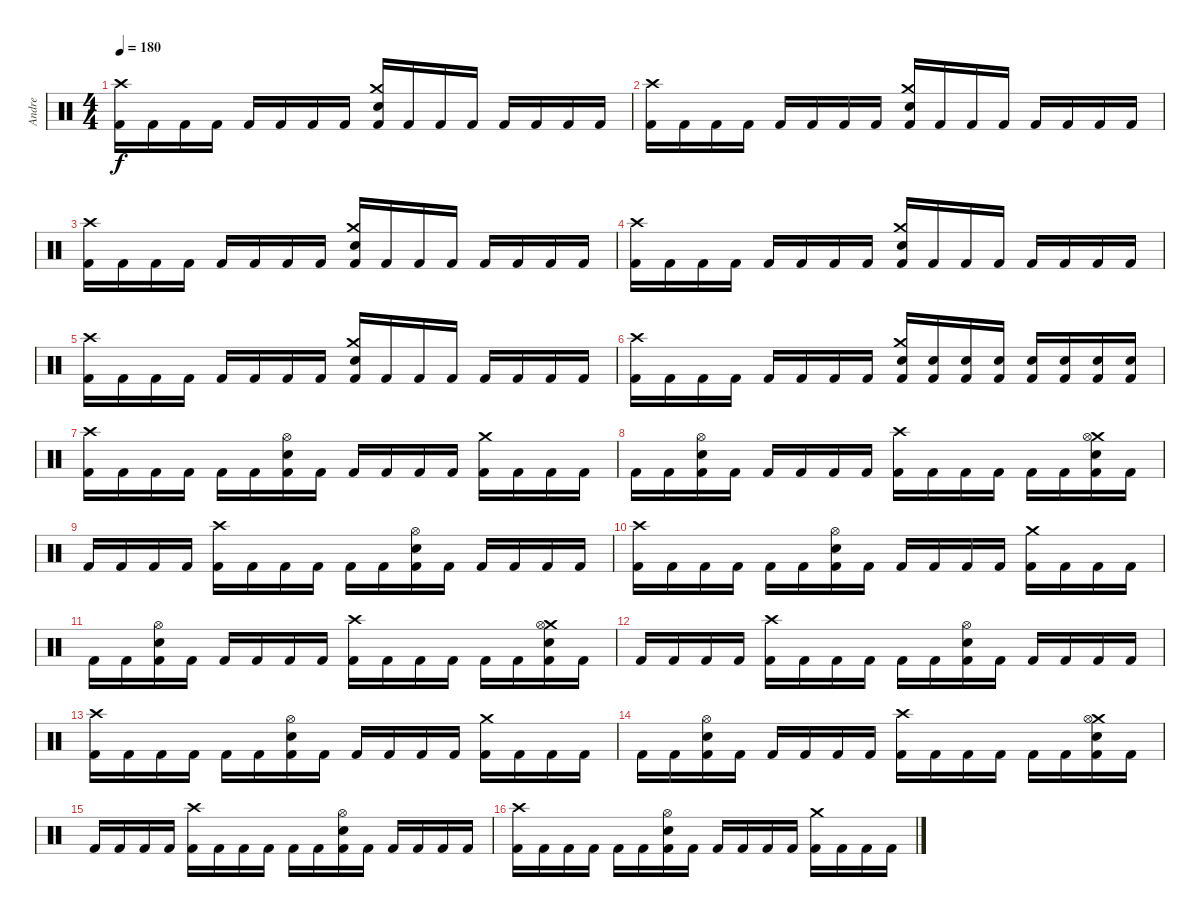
\track ("Andre" "Andre") {instrument percussion}
\staff {score}
\articulation defaults
\ts (4 4)
\tempo 180
\clef neutral
\ks c
("Crash high (hit)" "Kick (hit) 2").16{dy f} "Kick (hit) 2".16 "Kick (hit) 2".16 "Kick (hit) 2".16 "Kick (hit) 2".16 "Kick (hit) 2".16 "Kick (hit) 2".16 "Kick (hit) 2".16 ("Crash medium (hit)" "Snare (hit) 2" "Kick (hit) 2").16 "Kick (hit) 2".16 "Kick (hit) 2".16 "Kick (hit) 2".16 "Kick (hit) 2".16 "Kick (hit) 2".16 "Kick (hit) 2".16 "Kick (hit) 2".16 |
("Crash high (hit)" "Kick (hit) 2").16 "Kick (hit) 2".16 "Kick (hit) 2".16 "Kick (hit) 2".16 "Kick (hit) 2".16 "Kick (hit) 2".16 "Kick (hit) 2".16 "Kick (hit) 2".16 ("Crash medium (hit)" "Snare (hit) 2" "Kick (hit) 2").16 "Kick (hit) 2".16 "Kick (hit) 2".16 "Kick (hit) 2".16 "Kick (hit) 2".16 "Kick (hit) 2".16 "Kick (hit) 2".16 "Kick (hit) 2".16 |
("Crash high (hit)" "Kick (hit) 2").16 "Kick (hit) 2".16 "Kick (hit) 2".16 "Kick (hit) 2".16 "Kick (hit) 2".16 "Kick (hit) 2".16 "Kick (hit) 2".16 "Kick (hit) 2".16 ("Crash medium (hit)" "Snare (hit) 2" "Kick (hit) 2").16 "Kick (hit) 2".16 "Kick (hit) 2".16 "Kick (hit) 2".16 "Kick (hit) 2".16 "Kick (hit) 2".16 "Kick (hit) 2".16 "Kick (hit) 2".16 |
("Crash high (hit)" "Kick (hit) 2").16 "Kick (hit) 2".16 "Kick (hit) 2".16 "Kick (hit) 2".16 "Kick (hit) 2".16 "Kick (hit) 2".16 "Kick (hit) 2".16 "Kick (hit) 2".16 ("Crash medium (hit)" "Snare (hit) 2" "Kick (hit) 2").16 "Kick (hit) 2".16 "Kick (hit) 2".16 "Kick (hit) 2".16 "Kick (hit) 2".16 "Kick (hit) 2".16 "Kick (hit) 2".16 "Kick (hit) 2".16 |
("Crash high (hit)" "Kick (hit) 2").16 "Kick (hit) 2".16 "Kick (hit) 2".16 "Kick (hit) 2".16 "Kick (hit) 2".16 "Kick (hit) 2".16 "Kick (hit) 2".16 "Kick (hit) 2".16 ("Crash medium (hit)" "Snare (hit) 2" "Kick (hit) 2").16 "Kick (hit) 2".16 "Kick (hit) 2".16 "Kick (hit) 2".16 "Kick (hit) 2".16 "Kick (hit) 2".16 "Kick (hit) 2".16 "Kick (hit) 2".16 |
("Crash high (hit)" "Kick (hit) 2").16 "Kick (hit) 2".16 "Kick (hit) 2".16 "Kick (hit) 2".16 "Kick (hit) 2".16 "Kick (hit) 2".16 "Kick (hit) 2".16 "Kick (hit) 2".16 ("Crash medium (hit)" "Snare (hit) 2" "Kick (hit) 2").16 ("Snare (hit) 2" "Kick (hit) 2").16 ("Snare (hit) 2" "Kick (hit) 2").16 ("Snare (hit) 2" "Kick (hit) 2").16 ("Snare (hit) 2" "Kick (hit) 2").16 ("Snare (hit) 2" "Kick (hit) 2").16 ("Snare (hit) 2" "Kick (hit) 2").16 ("Snare (hit) 2" "Kick (hit) 2").16 |
("Crash high (hit)" "Kick (hit) 2").16 "Kick (hit) 2".16 "Kick (hit) 2".16 "Kick (hit) 2".16 "Kick (hit) 2".16 "Kick (hit) 2".16 ("Hi-Hat (open)" "Snare (hit) 2" "Kick (hit) 2").16 "Kick (hit) 2".16 "Kick (hit) 2".16 "Kick (hit) 2".16 "Kick (hit) 2".16 "Kick (hit) 2".16 ("Crash medium (hit)" "Kick (hit) 2").16 "Kick (hit) 2".16 "Kick (hit) 2".16 "Kick (hit) 2".16 |
"Kick (hit) 2".16 "Kick (hit) 2".16 ("Hi-Hat (open)" "Snare (hit) 2" "Kick (hit) 2").16 "Kick (hit) 2".16 "Kick (hit) 2".16 "Kick (hit) 2".16 "Kick (hit) 2".16 "Kick (hit) 2".16 ("Crash high (hit)" "Kick (hit) 2").16 "Kick (hit) 2".16 "Kick (hit) 2".16 "Kick (hit) 2".16 "Kick (hit) 2".16 "Kick (hit) 2".16 ("Crash medium (hit)" "Hi-Hat (open)" "Snare (hit) 2" "Kick (hit) 2").16 "Kick (hit) 2".16 |
"Kick (hit) 2".16 "Kick (hit) 2".16 "Kick (hit) 2".16 "Kick (hit) 2".16 ("Crash high (hit)" "Kick (hit) 2").16 "Kick (hit) 2".16 "Kick (hit) 2".16 "Kick (hit) 2".16 "Kick (hit) 2".16 "Kick (hit) 2".16 ("Hi-Hat (open)" "Snare (hit) 2" "Kick (hit) 2").16 "Kick (hit) 2".16 "Kick (hit) 2".16 "Kick (hit) 2".16 "Kick (hit) 2".16 "Kick (hit) 2".16 |
("Crash high (hit)" "Kick (hit) 2").16 "Kick (hit) 2".16 "Kick (hit) 2".16 "Kick (hit) 2".16 "Kick (hit) 2".16 "Kick (hit) 2".16 ("Hi-Hat (open)" "Snare (hit) 2" "Kick (hit) 2").16 "Kick (hit) 2".16 "Kick (hit) 2".16 "Kick (hit) 2".16 "Kick (hit) 2".16 "Kick (hit) 2".16 ("Crash medium (hit)" "Kick (hit) 2").16 "Kick (hit) 2".16 "Kick (hit) 2".16 "Kick (hit) 2".16 |
"Kick (hit) 2".16 "Kick (hit) 2".16 ("Hi-Hat (open)" "Snare (hit) 2" "Kick (hit) 2").16 "Kick (hit) 2".16 "Kick (hit) 2".16 "Kick (hit) 2".16 "Kick (hit) 2".16 "Kick (hit) 2".16 ("Crash high (hit)" "Kick (hit) 2").16 "Kick (hit) 2".16 "Kick (hit) 2".16 "Kick (hit) 2".16 "Kick (hit) 2".16 "Kick (hit) 2".16 ("Crash medium (hit)" "Hi-Hat (open)" "Snare (hit) 2" "Kick (hit) 2").16 "Kick (hit) 2".16 |
"Kick (hit) 2".16 "Kick (hit) 2".16 "Kick (hit) 2".16 "Kick (hit) 2".16 ("Crash high (hit)" "Kick (hit) 2").16 "Kick (hit) 2".16 "Kick (hit) 2".16 "Kick (hit) 2".16 "Kick (hit) 2".16 "Kick (hit) 2".16 ("Hi-Hat (open)" "Snare (hit) 2" "Kick (hit) 2").16 "Kick (hit) 2".16 "Kick (hit) 2".16 "Kick (hit) 2".16 "Kick (hit) 2".16 "Kick (hit) 2".16 |
("Crash high (hit)" "Kick (hit) 2").16 "Kick (hit) 2".16 "Kick (hit) 2".16 "Kick (hit) 2".16 "Kick (hit) 2".16 "Kick (hit) 2".16 ("Hi-Hat (open)" "Snare (hit) 2" "Kick (hit) 2").16 "Kick (hit) 2".16 "Kick (hit) 2".16 "Kick (hit) 2".16 "Kick (hit) 2".16 "Kick (hit) 2".16 ("Crash medium (hit)" "Kick (hit) 2").16 "Kick (hit) 2".16 "Kick (hit) 2".16 "Kick (hit) 2".16 |
"Kick (hit) 2".16 "Kick (hit) 2".16 ("Hi-Hat (open)" "Snare (hit) 2" "Kick (hit) 2").16 "Kick (hit) 2".16 "Kick (hit) 2".16 "Kick (hit) 2".16 "Kick (hit) 2".16 "Kick (hit) 2".16 ("Crash high (hit)" "Kick (hit) 2").16 "Kick (hit) 2".16 "Kick (hit) 2".16 "Kick (hit) 2".16 "Kick (hit) 2".16 "Kick (hit) 2".16 ("Crash medium (hit)" "Hi-Hat (open)" "Snare (hit) 2" "Kick (hit) 2").16 "Kick (hit) 2".16 |
"Kick (hit) 2".16 "Kick (hit) 2".16 "Kick (hit) 2".16 "Kick (hit) 2".16 ("Crash high (hit)" "Kick (hit) 2").16 "Kick (hit) 2".16 "Kick (hit) 2".16 "Kick (hit) 2".16 "Kick (hit) 2".16 "Kick (hit) 2".16 ("Hi-Hat (open)" "Snare (hit) 2" "Kick (hit) 2").16 "Kick (hit) 2".16 "Kick (hit) 2".16 "Kick (hit) 2".16 "Kick (hit) 2".16 "Kick (hit) 2".16 |
("Crash high (hit)" "Kick (hit) 2").16 "Kick (hit) 2".16 "Kick (hit) 2".16 "Kick (hit) 2".16 "Kick (hit) 2".16 "Kick (hit) 2".16 ("Hi-Hat (open)" "Snare (hit) 2" "Kick (hit) 2").16 "Kick (hit) 2".16 "Kick (hit) 2".16 "Kick (hit) 2".16 "Kick (hit) 2".16 "Kick (hit) 2".16 ("Crash medium (hit)" "Kick (hit) 2").16 "Kick (hit) 2".16 "Kick (hit) 2".16 "Kick (hit) 2".16
